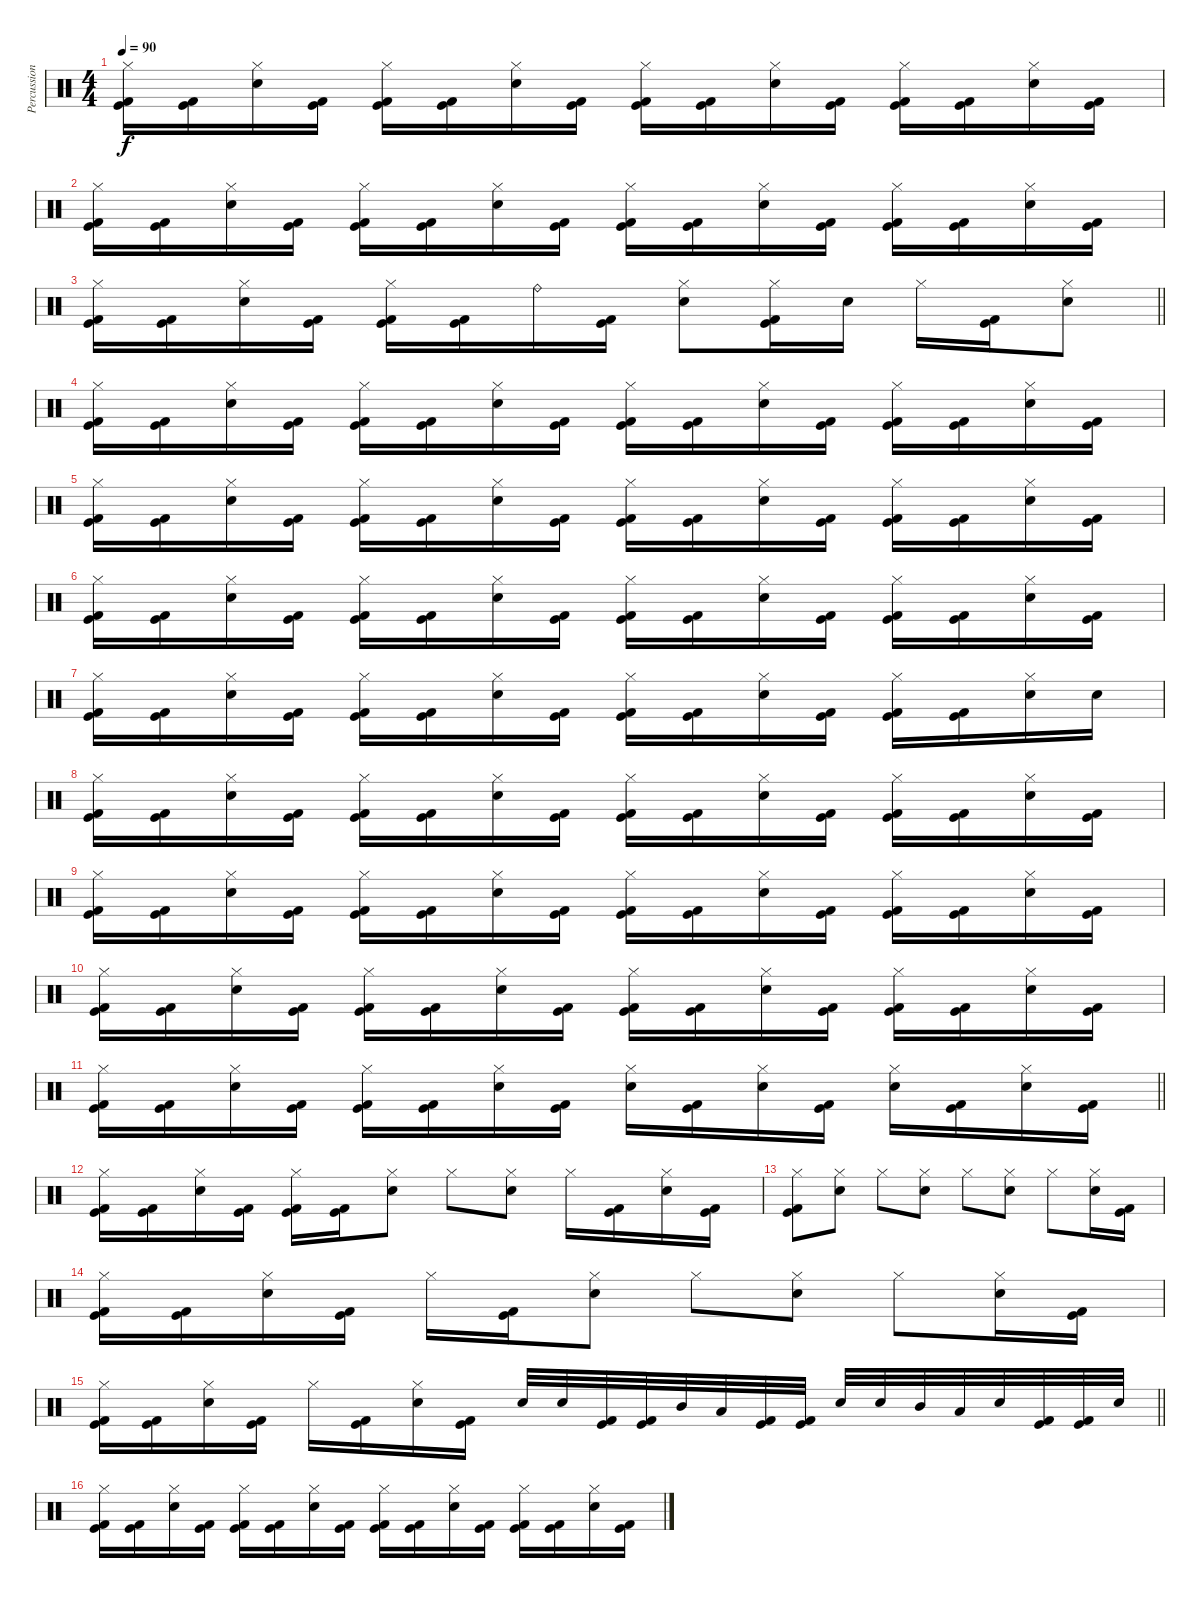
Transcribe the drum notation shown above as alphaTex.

\track ("Percussion" "Percussion") {instrument percussion}
\staff {score}
\articulation defaults
\ts (4 4)
\tempo 90
\clef neutral
\ks c
("Hi-Hat (closed)" "Kick (hit)" "Kick (hit) 2").16{dy f} ("Kick (hit)" "Kick (hit) 2").16 ("Hi-Hat (closed)" "Electric Snare (hit)").16 ("Kick (hit)" "Kick (hit) 2").16 ("Hi-Hat (closed)" "Kick (hit)" "Kick (hit) 2").16 ("Kick (hit)" "Kick (hit) 2").16 ("Hi-Hat (closed)" "Electric Snare (hit)").16 ("Kick (hit)" "Kick (hit) 2").16 ("Hi-Hat (closed)" "Kick (hit)" "Kick (hit) 2").16 ("Kick (hit)" "Kick (hit) 2").16 ("Hi-Hat (closed)" "Electric Snare (hit)").16 ("Kick (hit)" "Kick (hit) 2").16 ("Hi-Hat (closed)" "Kick (hit)" "Kick (hit) 2").16 ("Kick (hit)" "Kick (hit) 2").16 ("Hi-Hat (closed)" "Electric Snare (hit)").16 ("Kick (hit)" "Kick (hit) 2").16 |
("Hi-Hat (closed)" "Kick (hit)" "Kick (hit) 2").16 ("Kick (hit)" "Kick (hit) 2").16 ("Hi-Hat (closed)" "Electric Snare (hit)").16 ("Kick (hit)" "Kick (hit) 2").16 ("Hi-Hat (closed)" "Kick (hit)" "Kick (hit) 2").16 ("Kick (hit)" "Kick (hit) 2").16 ("Hi-Hat (closed)" "Electric Snare (hit)").16 ("Kick (hit)" "Kick (hit) 2").16 ("Hi-Hat (closed)" "Kick (hit)" "Kick (hit) 2").16 ("Kick (hit)" "Kick (hit) 2").16 ("Hi-Hat (closed)" "Electric Snare (hit)").16 ("Kick (hit)" "Kick (hit) 2").16 ("Hi-Hat (closed)" "Kick (hit)" "Kick (hit) 2").16 ("Kick (hit)" "Kick (hit) 2").16 ("Hi-Hat (closed)" "Electric Snare (hit)").16 ("Kick (hit)" "Kick (hit) 2").16 |
\barLineRight lightlight
("Hi-Hat (closed)" "Kick (hit)" "Kick (hit) 2").16 ("Kick (hit)" "Kick (hit) 2").16 ("Hi-Hat (closed)" "Electric Snare (hit)").16 ("Kick (hit)" "Kick (hit) 2").16 ("Hi-Hat (closed)" "Kick (hit)" "Kick (hit) 2").16 ("Kick (hit)" "Kick (hit) 2").16 "Ride (bell)".16 ("Kick (hit)" "Kick (hit) 2").16 ("Hi-Hat (closed)" "Electric Snare (hit)").8 ("Hi-Hat (closed)" "Kick (hit)" "Kick (hit) 2").16 "Electric Snare (hit)".16 "Hi-Hat (closed)".16 ("Kick (hit)" "Kick (hit) 2").16 ("Hi-Hat (closed)" "Electric Snare (hit)").8 |
\section ("" "")
("Hi-Hat (closed)" "Kick (hit)" "Kick (hit) 2").16 ("Kick (hit)" "Kick (hit) 2").16 ("Hi-Hat (closed)" "Electric Snare (hit)").16 ("Kick (hit)" "Kick (hit) 2").16 ("Hi-Hat (closed)" "Kick (hit)" "Kick (hit) 2").16 ("Kick (hit)" "Kick (hit) 2").16 ("Hi-Hat (closed)" "Electric Snare (hit)").16 ("Kick (hit)" "Kick (hit) 2").16 ("Hi-Hat (closed)" "Kick (hit)" "Kick (hit) 2").16 ("Kick (hit)" "Kick (hit) 2").16 ("Hi-Hat (closed)" "Electric Snare (hit)").16 ("Kick (hit)" "Kick (hit) 2").16 ("Hi-Hat (closed)" "Kick (hit)" "Kick (hit) 2").16 ("Kick (hit)" "Kick (hit) 2").16 ("Hi-Hat (closed)" "Electric Snare (hit)").16 ("Kick (hit)" "Kick (hit) 2").16 |
("Hi-Hat (closed)" "Kick (hit)" "Kick (hit) 2").16 ("Kick (hit)" "Kick (hit) 2").16 ("Hi-Hat (closed)" "Electric Snare (hit)").16 ("Kick (hit)" "Kick (hit) 2").16 ("Hi-Hat (closed)" "Kick (hit)" "Kick (hit) 2").16 ("Kick (hit)" "Kick (hit) 2").16 ("Hi-Hat (closed)" "Electric Snare (hit)").16 ("Kick (hit)" "Kick (hit) 2").16 ("Hi-Hat (closed)" "Kick (hit)" "Kick (hit) 2").16 ("Kick (hit)" "Kick (hit) 2").16 ("Hi-Hat (closed)" "Electric Snare (hit)").16 ("Kick (hit)" "Kick (hit) 2").16 ("Hi-Hat (closed)" "Kick (hit)" "Kick (hit) 2").16 ("Kick (hit)" "Kick (hit) 2").16 ("Hi-Hat (closed)" "Electric Snare (hit)").16 ("Kick (hit)" "Kick (hit) 2").16 |
("Hi-Hat (closed)" "Kick (hit)" "Kick (hit) 2").16 ("Kick (hit)" "Kick (hit) 2").16 ("Hi-Hat (closed)" "Electric Snare (hit)").16 ("Kick (hit)" "Kick (hit) 2").16 ("Hi-Hat (closed)" "Kick (hit)" "Kick (hit) 2").16 ("Kick (hit)" "Kick (hit) 2").16 ("Hi-Hat (closed)" "Electric Snare (hit)").16 ("Kick (hit)" "Kick (hit) 2").16 ("Hi-Hat (closed)" "Kick (hit)" "Kick (hit) 2").16 ("Kick (hit)" "Kick (hit) 2").16 ("Hi-Hat (closed)" "Electric Snare (hit)").16 ("Kick (hit)" "Kick (hit) 2").16 ("Hi-Hat (closed)" "Kick (hit)" "Kick (hit) 2").16 ("Kick (hit)" "Kick (hit) 2").16 ("Hi-Hat (closed)" "Electric Snare (hit)").16 ("Kick (hit)" "Kick (hit) 2").16 |
("Hi-Hat (closed)" "Kick (hit)" "Kick (hit) 2").16 ("Kick (hit)" "Kick (hit) 2").16 ("Hi-Hat (closed)" "Electric Snare (hit)").16 ("Kick (hit)" "Kick (hit) 2").16 ("Hi-Hat (closed)" "Kick (hit)" "Kick (hit) 2").16 ("Kick (hit)" "Kick (hit) 2").16 ("Hi-Hat (closed)" "Electric Snare (hit)").16 ("Kick (hit)" "Kick (hit) 2").16 ("Hi-Hat (closed)" "Kick (hit)" "Kick (hit) 2").16 ("Kick (hit)" "Kick (hit) 2").16 ("Hi-Hat (closed)" "Electric Snare (hit)").16 ("Kick (hit)" "Kick (hit) 2").16 ("Hi-Hat (closed)" "Kick (hit)" "Kick (hit) 2").16 ("Kick (hit)" "Kick (hit) 2").16 ("Hi-Hat (closed)" "Electric Snare (hit)").16 "Electric Snare (hit)".16 |
("Hi-Hat (closed)" "Kick (hit)" "Kick (hit) 2").16 ("Kick (hit)" "Kick (hit) 2").16 ("Hi-Hat (closed)" "Electric Snare (hit)").16 ("Kick (hit)" "Kick (hit) 2").16 ("Hi-Hat (closed)" "Kick (hit)" "Kick (hit) 2").16 ("Kick (hit)" "Kick (hit) 2").16 ("Hi-Hat (closed)" "Electric Snare (hit)").16 ("Kick (hit)" "Kick (hit) 2").16 ("Hi-Hat (closed)" "Kick (hit)" "Kick (hit) 2").16 ("Kick (hit)" "Kick (hit) 2").16 ("Hi-Hat (closed)" "Electric Snare (hit)").16 ("Kick (hit)" "Kick (hit) 2").16 ("Hi-Hat (closed)" "Kick (hit)" "Kick (hit) 2").16 ("Kick (hit)" "Kick (hit) 2").16 ("Hi-Hat (closed)" "Electric Snare (hit)").16 ("Kick (hit)" "Kick (hit) 2").16 |
("Hi-Hat (closed)" "Kick (hit)" "Kick (hit) 2").16 ("Kick (hit)" "Kick (hit) 2").16 ("Hi-Hat (closed)" "Electric Snare (hit)").16 ("Kick (hit)" "Kick (hit) 2").16 ("Hi-Hat (closed)" "Kick (hit)" "Kick (hit) 2").16 ("Kick (hit)" "Kick (hit) 2").16 ("Hi-Hat (closed)" "Electric Snare (hit)").16 ("Kick (hit)" "Kick (hit) 2").16 ("Hi-Hat (closed)" "Kick (hit)" "Kick (hit) 2").16 ("Kick (hit)" "Kick (hit) 2").16 ("Hi-Hat (closed)" "Electric Snare (hit)").16 ("Kick (hit)" "Kick (hit) 2").16 ("Hi-Hat (closed)" "Kick (hit)" "Kick (hit) 2").16 ("Kick (hit)" "Kick (hit) 2").16 ("Hi-Hat (closed)" "Electric Snare (hit)").16 ("Kick (hit)" "Kick (hit) 2").16 |
("Hi-Hat (closed)" "Kick (hit)" "Kick (hit) 2").16 ("Kick (hit)" "Kick (hit) 2").16 ("Hi-Hat (closed)" "Electric Snare (hit)").16 ("Kick (hit)" "Kick (hit) 2").16 ("Hi-Hat (closed)" "Kick (hit)" "Kick (hit) 2").16 ("Kick (hit)" "Kick (hit) 2").16 ("Hi-Hat (closed)" "Electric Snare (hit)").16 ("Kick (hit)" "Kick (hit) 2").16 ("Hi-Hat (closed)" "Kick (hit)" "Kick (hit) 2").16 ("Kick (hit)" "Kick (hit) 2").16 ("Hi-Hat (closed)" "Electric Snare (hit)").16 ("Kick (hit)" "Kick (hit) 2").16 ("Hi-Hat (closed)" "Kick (hit)" "Kick (hit) 2").16 ("Kick (hit)" "Kick (hit) 2").16 ("Hi-Hat (closed)" "Electric Snare (hit)").16 ("Kick (hit)" "Kick (hit) 2").16 |
\barLineRight lightlight
("Hi-Hat (closed)" "Kick (hit)" "Kick (hit) 2").16 ("Kick (hit)" "Kick (hit) 2").16 ("Hi-Hat (closed)" "Electric Snare (hit)").16 ("Kick (hit)" "Kick (hit) 2").16 ("Hi-Hat (closed)" "Kick (hit)" "Kick (hit) 2").16 ("Kick (hit)" "Kick (hit) 2").16 ("Hi-Hat (closed)" "Electric Snare (hit)").16 ("Kick (hit)" "Kick (hit) 2").16 ("Hi-Hat (closed)" "Electric Snare (hit)").16 ("Kick (hit)" "Kick (hit) 2").16 ("Hi-Hat (closed)" "Electric Snare (hit)").16 ("Kick (hit)" "Kick (hit) 2").16 ("Hi-Hat (closed)" "Electric Snare (hit)").16 ("Kick (hit)" "Kick (hit) 2").16 ("Hi-Hat (closed)" "Electric Snare (hit)").16 ("Kick (hit)" "Kick (hit) 2").16 |
\section ("" "")
("Hi-Hat (closed)" "Kick (hit)" "Kick (hit) 2").16 ("Kick (hit)" "Kick (hit) 2").16 ("Hi-Hat (closed)" "Electric Snare (hit)").16 ("Kick (hit)" "Kick (hit) 2").16 ("Hi-Hat (closed)" "Kick (hit)" "Kick (hit) 2").16 ("Kick (hit)" "Kick (hit) 2").16 ("Hi-Hat (closed)" "Electric Snare (hit)").8 "Hi-Hat (closed)".8 ("Hi-Hat (closed)" "Electric Snare (hit)").8 "Hi-Hat (closed)".16 ("Kick (hit)" "Kick (hit) 2").16 ("Hi-Hat (closed)" "Electric Snare (hit)").16 ("Kick (hit)" "Kick (hit) 2").16 |
("Hi-Hat (closed)" "Kick (hit)" "Kick (hit) 2").8 ("Hi-Hat (closed)" "Electric Snare (hit)").8 "Hi-Hat (closed)".8 ("Hi-Hat (closed)" "Electric Snare (hit)").8 "Hi-Hat (closed)".8 ("Hi-Hat (closed)" "Electric Snare (hit)").8 "Hi-Hat (closed)".8 ("Hi-Hat (closed)" "Electric Snare (hit)").16 ("Kick (hit)" "Kick (hit) 2").16 |
("Hi-Hat (closed)" "Kick (hit)" "Kick (hit) 2").16 ("Kick (hit)" "Kick (hit) 2").16 ("Hi-Hat (closed)" "Electric Snare (hit)").16 ("Kick (hit)" "Kick (hit) 2").16 "Hi-Hat (closed)".16 ("Kick (hit)" "Kick (hit) 2").16 ("Hi-Hat (closed)" "Electric Snare (hit)").8 "Hi-Hat (closed)".8 ("Hi-Hat (closed)" "Electric Snare (hit)").8 "Hi-Hat (closed)".8 ("Hi-Hat (closed)" "Electric Snare (hit)").16 ("Kick (hit)" "Kick (hit) 2").16 |
\barLineRight lightlight
("Hi-Hat (closed)" "Kick (hit)" "Kick (hit) 2").16 ("Kick (hit)" "Kick (hit) 2").16 ("Hi-Hat (closed)" "Electric Snare (hit)").16 ("Kick (hit)" "Kick (hit) 2").16 "Hi-Hat (closed)".16 ("Kick (hit)" "Kick (hit) 2").16 ("Hi-Hat (closed)" "Electric Snare (hit)").16 ("Kick (hit)" "Kick (hit) 2").16 "Electric Snare (hit)".32 "Electric Snare (hit)".32 ("Kick (hit)" "Kick (hit) 2").32 ("Kick (hit)" "Kick (hit) 2").32 "Mid Tom (hit)".32 "Low Tom (hit)".32 ("Kick (hit)" "Kick (hit) 2").32 ("Kick (hit)" "Kick (hit) 2").32 "Electric Snare (hit)".32 "Electric Snare (hit)".32 "Mid Tom (hit)".32 "Low Tom (hit)".32 "Electric Snare (hit)".32 ("Kick (hit)" "Kick (hit) 2").32 ("Kick (hit)" "Kick (hit) 2").32 "Electric Snare (hit)".32 |
\section ("" "")
("Hi-Hat (closed)" "Kick (hit)" "Kick (hit) 2").16 ("Kick (hit)" "Kick (hit) 2").16 ("Hi-Hat (closed)" "Electric Snare (hit)").16 ("Kick (hit)" "Kick (hit) 2").16 ("Hi-Hat (closed)" "Kick (hit)" "Kick (hit) 2").16 ("Kick (hit)" "Kick (hit) 2").16 ("Hi-Hat (closed)" "Electric Snare (hit)").16 ("Kick (hit)" "Kick (hit) 2").16 ("Hi-Hat (closed)" "Kick (hit)" "Kick (hit) 2").16 ("Kick (hit)" "Kick (hit) 2").16 ("Hi-Hat (closed)" "Electric Snare (hit)").16 ("Kick (hit)" "Kick (hit) 2").16 ("Hi-Hat (closed)" "Kick (hit)" "Kick (hit) 2").16 ("Kick (hit)" "Kick (hit) 2").16 ("Hi-Hat (closed)" "Electric Snare (hit)").16 ("Kick (hit)" "Kick (hit) 2").16
